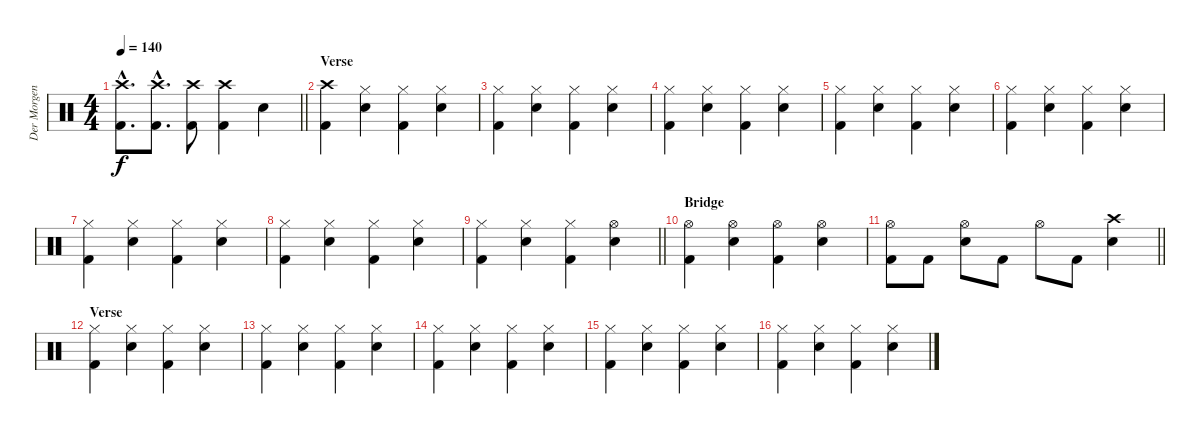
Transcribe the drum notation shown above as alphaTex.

\track ("Der Morgenstern" "Der Morgen") {instrument percussion}
\staff {score}
\articulation defaults
\ts (4 4)
\tempo 140
\clef neutral
\barLineRight lightlight
\ks c
("Crash high (hit)"{hac} "Kick (hit) 2"{hac}).8{d dy f} ("Crash high (hit)"{hac} "Kick (hit) 2"{hac}).8{d} ("Crash high (hit)" "Kick (hit) 2").8 ("Crash high (hit)" "Kick (hit) 2").4 "Snare (hit) 2".4 |
\section ("" "Verse")
("Crash high (hit)" "Kick (hit) 2").4 ("Hi-Hat (closed)" "Snare (hit) 2").4 ("Hi-Hat (closed)" "Kick (hit) 2").4 ("Hi-Hat (closed)" "Snare (hit) 2").4 |
("Hi-Hat (closed)" "Kick (hit) 2").4 ("Hi-Hat (closed)" "Snare (hit) 2").4 ("Hi-Hat (closed)" "Kick (hit) 2").4 ("Hi-Hat (closed)" "Snare (hit) 2").4 |
("Hi-Hat (closed)" "Kick (hit) 2").4 ("Hi-Hat (closed)" "Snare (hit) 2").4 ("Hi-Hat (closed)" "Kick (hit) 2").4 ("Hi-Hat (closed)" "Snare (hit) 2").4 |
("Hi-Hat (closed)" "Kick (hit) 2").4 ("Hi-Hat (closed)" "Snare (hit) 2").4 ("Hi-Hat (closed)" "Kick (hit) 2").4 ("Hi-Hat (closed)" "Snare (hit) 2").4 |
("Hi-Hat (closed)" "Kick (hit) 2").4 ("Hi-Hat (closed)" "Snare (hit) 2").4 ("Hi-Hat (closed)" "Kick (hit) 2").4 ("Hi-Hat (closed)" "Snare (hit) 2").4 |
("Hi-Hat (closed)" "Kick (hit) 2").4 ("Hi-Hat (closed)" "Snare (hit) 2").4 ("Hi-Hat (closed)" "Kick (hit) 2").4 ("Hi-Hat (closed)" "Snare (hit) 2").4 |
("Hi-Hat (closed)" "Kick (hit) 2").4 ("Hi-Hat (closed)" "Snare (hit) 2").4 ("Hi-Hat (closed)" "Kick (hit) 2").4 ("Hi-Hat (closed)" "Snare (hit) 2").4 |
\barLineRight lightlight
("Hi-Hat (closed)" "Kick (hit) 2").4 ("Hi-Hat (closed)" "Snare (hit) 2").4 ("Hi-Hat (closed)" "Kick (hit) 2").4 ("Hi-Hat (open)" "Snare (hit) 2").4 |
\section ("" "Bridge")
("Hi-Hat (open)" "Kick (hit) 2").4 ("Hi-Hat (open)" "Snare (hit) 2").4 ("Hi-Hat (open)" "Kick (hit) 2").4 ("Hi-Hat (open)" "Snare (hit) 2").4 |
\barLineRight lightlight
("Hi-Hat (open)" "Kick (hit) 2").8 "Kick (hit) 2".8 ("Hi-Hat (open)" "Snare (hit) 2").8 "Kick (hit) 2".8 "Hi-Hat (open)".8 "Kick (hit) 2".8 ("Crash high (hit)" "Snare (hit) 2").4 |
\section ("" "Verse")
("Hi-Hat (closed)" "Kick (hit) 2").4 ("Hi-Hat (closed)" "Snare (hit) 2").4 ("Hi-Hat (closed)" "Kick (hit) 2").4 ("Hi-Hat (closed)" "Snare (hit) 2").4 |
("Hi-Hat (closed)" "Kick (hit) 2").4 ("Hi-Hat (closed)" "Snare (hit) 2").4 ("Hi-Hat (closed)" "Kick (hit) 2").4 ("Hi-Hat (closed)" "Snare (hit) 2").4 |
("Hi-Hat (closed)" "Kick (hit) 2").4 ("Hi-Hat (closed)" "Snare (hit) 2").4 ("Hi-Hat (closed)" "Kick (hit) 2").4 ("Hi-Hat (closed)" "Snare (hit) 2").4 |
("Hi-Hat (closed)" "Kick (hit) 2").4 ("Hi-Hat (closed)" "Snare (hit) 2").4 ("Hi-Hat (closed)" "Kick (hit) 2").4 ("Hi-Hat (closed)" "Snare (hit) 2").4 |
("Hi-Hat (closed)" "Kick (hit) 2").4 ("Hi-Hat (closed)" "Snare (hit) 2").4 ("Hi-Hat (closed)" "Kick (hit) 2").4 ("Hi-Hat (closed)" "Snare (hit) 2").4
